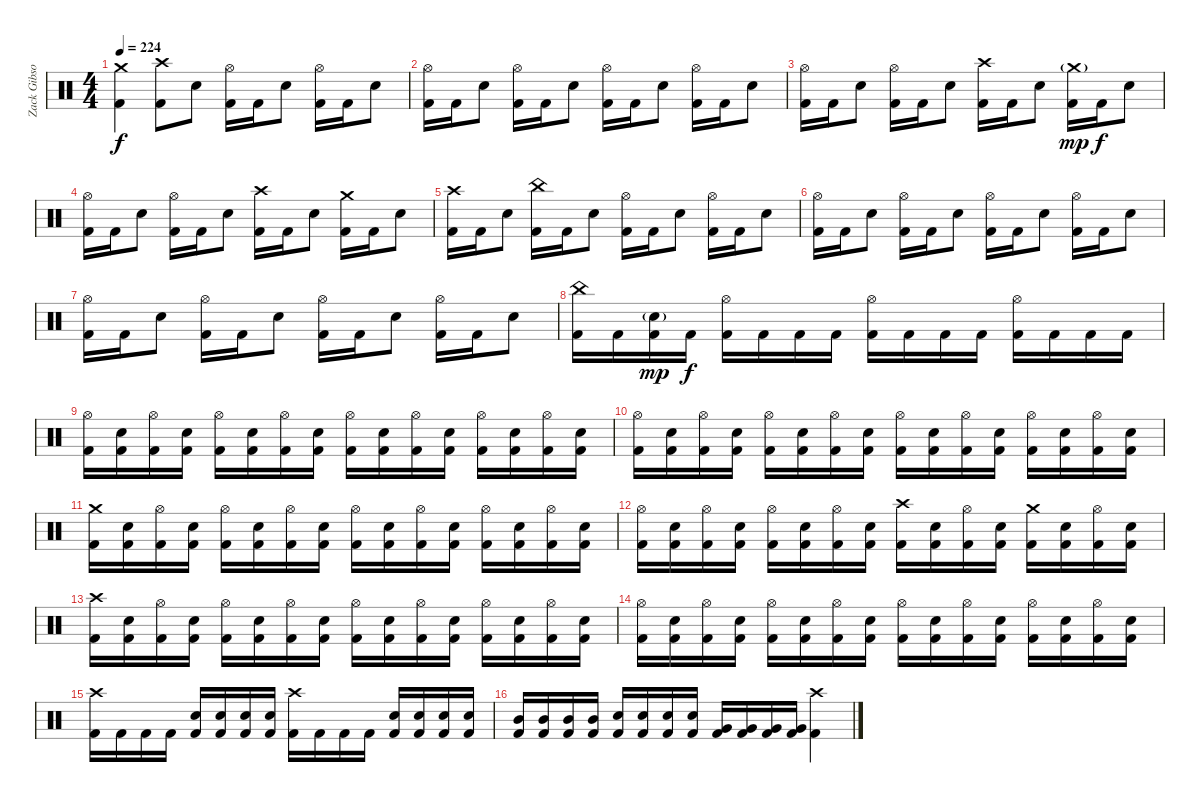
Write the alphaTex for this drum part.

\track ("Zack Gibson" "Zack Gibso") {instrument percussion}
\staff {score}
\articulation defaults
\ts (4 4)
\tempo 224
\clef neutral
\ks c
("Crash medium (hit)" "Kick (hit) 2").4{dy f} ("Crash high (hit)" "Kick (hit) 2").8 "Snare (hit) 2".8 ("Hi-Hat (open)" "Kick (hit) 2").16 "Kick (hit) 2".16 "Snare (hit) 2".8 ("Hi-Hat (open)" "Kick (hit) 2").16 "Kick (hit) 2".16 "Snare (hit) 2".8 |
("Hi-Hat (open)" "Kick (hit) 2").16 "Kick (hit) 2".16 "Snare (hit) 2".8 ("Hi-Hat (open)" "Kick (hit) 2").16 "Kick (hit) 2".16 "Snare (hit) 2".8 ("Hi-Hat (open)" "Kick (hit) 2").16 "Kick (hit) 2".16 "Snare (hit) 2".8 ("Hi-Hat (open)" "Kick (hit) 2").16 "Kick (hit) 2".16 "Snare (hit) 2".8 |
("Hi-Hat (open)" "Kick (hit) 2").16 "Kick (hit) 2".16 "Snare (hit) 2".8 ("Hi-Hat (open)" "Kick (hit) 2").16 "Kick (hit) 2".16 "Snare (hit) 2".8 ("Crash high (hit)" "Kick (hit) 2").16 "Kick (hit) 2".16 "Snare (hit) 2".8 ("Crash medium (hit)"{g} "Kick (hit) 2").16{dy mp} "Kick (hit) 2".16{dy f} "Snare (hit) 2".8 |
("Hi-Hat (open)" "Kick (hit) 2").16 "Kick (hit) 2".16 "Snare (hit) 2".8 ("Hi-Hat (open)" "Kick (hit) 2").16 "Kick (hit) 2".16 "Snare (hit) 2".8 ("Crash high (hit)" "Kick (hit) 2").16 "Kick (hit) 2".16 "Snare (hit) 2".8 ("Crash medium (hit)" "Kick (hit) 2").16 "Kick (hit) 2".16 "Snare (hit) 2".8 |
("Crash high (hit)" "Kick (hit) 2").16 "Kick (hit) 2".16 "Snare (hit) 2".8 ("China (hit)" "Kick (hit) 2").16 "Kick (hit) 2".16 "Snare (hit) 2".8 ("Hi-Hat (open)" "Kick (hit) 2").16 "Kick (hit) 2".16 "Snare (hit) 2".8 ("Hi-Hat (open)" "Kick (hit) 2").16 "Kick (hit) 2".16 "Snare (hit) 2".8 |
("Hi-Hat (open)" "Kick (hit) 2").16 "Kick (hit) 2".16 "Snare (hit) 2".8 ("Hi-Hat (open)" "Kick (hit) 2").16 "Kick (hit) 2".16 "Snare (hit) 2".8 ("Hi-Hat (open)" "Kick (hit) 2").16 "Kick (hit) 2".16 "Snare (hit) 2".8 ("Hi-Hat (open)" "Kick (hit) 2").16 "Kick (hit) 2".16 "Snare (hit) 2".8 |
("Hi-Hat (open)" "Kick (hit) 2").16 "Kick (hit) 2".16 "Snare (hit) 2".8 ("Hi-Hat (open)" "Kick (hit) 2").16 "Kick (hit) 2".16 "Snare (hit) 2".8 ("Hi-Hat (open)" "Kick (hit) 2").16 "Kick (hit) 2".16 "Snare (hit) 2".8 ("Hi-Hat (open)" "Kick (hit) 2").16 "Kick (hit) 2".16 "Snare (hit) 2".8 |
("China (hit)" "Kick (hit) 2").16 "Kick (hit) 2".16 ("Snare (hit) 2"{g} "Kick (hit) 2").16{dy mp} "Kick (hit) 2".16{dy f} ("Hi-Hat (open)" "Kick (hit) 2").16 "Kick (hit) 2".16 "Kick (hit) 2".16 "Kick (hit) 2".16 ("Hi-Hat (open)" "Kick (hit) 2").16 "Kick (hit) 2".16 "Kick (hit) 2".16 "Kick (hit) 2".16 ("Hi-Hat (open)" "Kick (hit) 2").16 "Kick (hit) 2".16 "Kick (hit) 2".16 "Kick (hit) 2".16 |
("Hi-Hat (open)" "Kick (hit) 2").16 ("Snare (hit) 2" "Kick (hit) 2").16 ("Hi-Hat (open)" "Kick (hit) 2").16 ("Snare (hit) 2" "Kick (hit) 2").16 ("Hi-Hat (open)" "Kick (hit) 2").16 ("Snare (hit) 2" "Kick (hit) 2").16 ("Hi-Hat (open)" "Kick (hit) 2").16 ("Snare (hit) 2" "Kick (hit) 2").16 ("Hi-Hat (open)" "Kick (hit) 2").16 ("Snare (hit) 2" "Kick (hit) 2").16 ("Hi-Hat (open)" "Kick (hit) 2").16 ("Snare (hit) 2" "Kick (hit) 2").16 ("Hi-Hat (open)" "Kick (hit) 2").16 ("Snare (hit) 2" "Kick (hit) 2").16 ("Hi-Hat (open)" "Kick (hit) 2").16 ("Snare (hit) 2" "Kick (hit) 2").16 |
("Hi-Hat (open)" "Kick (hit) 2").16 ("Snare (hit) 2" "Kick (hit) 2").16 ("Hi-Hat (open)" "Kick (hit) 2").16 ("Snare (hit) 2" "Kick (hit) 2").16 ("Hi-Hat (open)" "Kick (hit) 2").16 ("Snare (hit) 2" "Kick (hit) 2").16 ("Hi-Hat (open)" "Kick (hit) 2").16 ("Snare (hit) 2" "Kick (hit) 2").16 ("Hi-Hat (open)" "Kick (hit) 2").16 ("Snare (hit) 2" "Kick (hit) 2").16 ("Hi-Hat (open)" "Kick (hit) 2").16 ("Snare (hit) 2" "Kick (hit) 2").16 ("Hi-Hat (open)" "Kick (hit) 2").16 ("Snare (hit) 2" "Kick (hit) 2").16 ("Hi-Hat (open)" "Kick (hit) 2").16 ("Snare (hit) 2" "Kick (hit) 2").16 |
("Crash medium (hit)" "Kick (hit) 2").16 ("Snare (hit) 2" "Kick (hit) 2").16 ("Hi-Hat (open)" "Kick (hit) 2").16 ("Snare (hit) 2" "Kick (hit) 2").16 ("Hi-Hat (open)" "Kick (hit) 2").16 ("Snare (hit) 2" "Kick (hit) 2").16 ("Hi-Hat (open)" "Kick (hit) 2").16 ("Snare (hit) 2" "Kick (hit) 2").16 ("Hi-Hat (open)" "Kick (hit) 2").16 ("Snare (hit) 2" "Kick (hit) 2").16 ("Hi-Hat (open)" "Kick (hit) 2").16 ("Snare (hit) 2" "Kick (hit) 2").16 ("Hi-Hat (open)" "Kick (hit) 2").16 ("Snare (hit) 2" "Kick (hit) 2").16 ("Hi-Hat (open)" "Kick (hit) 2").16 ("Snare (hit) 2" "Kick (hit) 2").16 |
("Hi-Hat (open)" "Kick (hit) 2").16 ("Snare (hit) 2" "Kick (hit) 2").16 ("Hi-Hat (open)" "Kick (hit) 2").16 ("Snare (hit) 2" "Kick (hit) 2").16 ("Hi-Hat (open)" "Kick (hit) 2").16 ("Snare (hit) 2" "Kick (hit) 2").16 ("Hi-Hat (open)" "Kick (hit) 2").16 ("Snare (hit) 2" "Kick (hit) 2").16 ("Crash high (hit)" "Kick (hit) 2").16 ("Snare (hit) 2" "Kick (hit) 2").16 ("Hi-Hat (open)" "Kick (hit) 2").16 ("Snare (hit) 2" "Kick (hit) 2").16 ("Crash medium (hit)" "Kick (hit) 2").16 ("Snare (hit) 2" "Kick (hit) 2").16 ("Hi-Hat (open)" "Kick (hit) 2").16 ("Snare (hit) 2" "Kick (hit) 2").16 |
("Crash high (hit)" "Kick (hit) 2").16 ("Snare (hit) 2" "Kick (hit) 2").16 ("Hi-Hat (open)" "Kick (hit) 2").16 ("Snare (hit) 2" "Kick (hit) 2").16 ("Hi-Hat (open)" "Kick (hit) 2").16 ("Snare (hit) 2" "Kick (hit) 2").16 ("Hi-Hat (open)" "Kick (hit) 2").16 ("Snare (hit) 2" "Kick (hit) 2").16 ("Hi-Hat (open)" "Kick (hit) 2").16 ("Snare (hit) 2" "Kick (hit) 2").16 ("Hi-Hat (open)" "Kick (hit) 2").16 ("Snare (hit) 2" "Kick (hit) 2").16 ("Hi-Hat (open)" "Kick (hit) 2").16 ("Snare (hit) 2" "Kick (hit) 2").16 ("Hi-Hat (open)" "Kick (hit) 2").16 ("Snare (hit) 2" "Kick (hit) 2").16 |
("Hi-Hat (open)" "Kick (hit) 2").16 ("Snare (hit) 2" "Kick (hit) 2").16 ("Hi-Hat (open)" "Kick (hit) 2").16 ("Snare (hit) 2" "Kick (hit) 2").16 ("Hi-Hat (open)" "Kick (hit) 2").16 ("Snare (hit) 2" "Kick (hit) 2").16 ("Hi-Hat (open)" "Kick (hit) 2").16 ("Snare (hit) 2" "Kick (hit) 2").16 ("Hi-Hat (open)" "Kick (hit) 2").16 ("Snare (hit) 2" "Kick (hit) 2").16 ("Hi-Hat (open)" "Kick (hit) 2").16 ("Snare (hit) 2" "Kick (hit) 2").16 ("Hi-Hat (open)" "Kick (hit) 2").16 ("Snare (hit) 2" "Kick (hit) 2").16 ("Hi-Hat (open)" "Kick (hit) 2").16 ("Snare (hit) 2" "Kick (hit) 2").16 |
("Crash high (hit)" "Kick (hit) 2").16 "Kick (hit) 2".16 "Kick (hit) 2".16 "Kick (hit) 2".16 ("Snare (hit) 2" "Kick (hit) 2").16 ("Snare (hit) 2" "Kick (hit) 2").16 ("Snare (hit) 2" "Kick (hit) 2").16 ("Snare (hit) 2" "Kick (hit) 2").16 ("Crash high (hit)" "Kick (hit) 2").16 "Kick (hit) 2".16 "Kick (hit) 2".16 "Kick (hit) 2".16 ("Snare (hit) 2" "Kick (hit) 2").16 ("Snare (hit) 2" "Kick (hit) 2").16 ("Snare (hit) 2" "Kick (hit) 2").16 ("Snare (hit) 2" "Kick (hit) 2").16 |
("Mid Tom (hit)" "Kick (hit) 2").16 ("Mid Tom (hit)" "Kick (hit) 2").16 ("Mid Tom (hit)" "Kick (hit) 2").16 ("Mid Tom (hit)" "Kick (hit) 2").16 ("Snare (hit) 2" "Kick (hit) 2").16 ("Snare (hit) 2" "Kick (hit) 2").16 ("Snare (hit) 2" "Kick (hit) 2").16 ("Snare (hit) 2" "Kick (hit) 2").16 ("Very Low Tom (hit)" "Kick (hit) 2").16 ("Very Low Tom (hit)" "Kick (hit) 2").16 ("Very Low Tom (hit)" "Kick (hit) 2").16 ("Very Low Tom (hit)" "Kick (hit) 2").16 ("Crash high (hit)" "Kick (hit) 2").4
